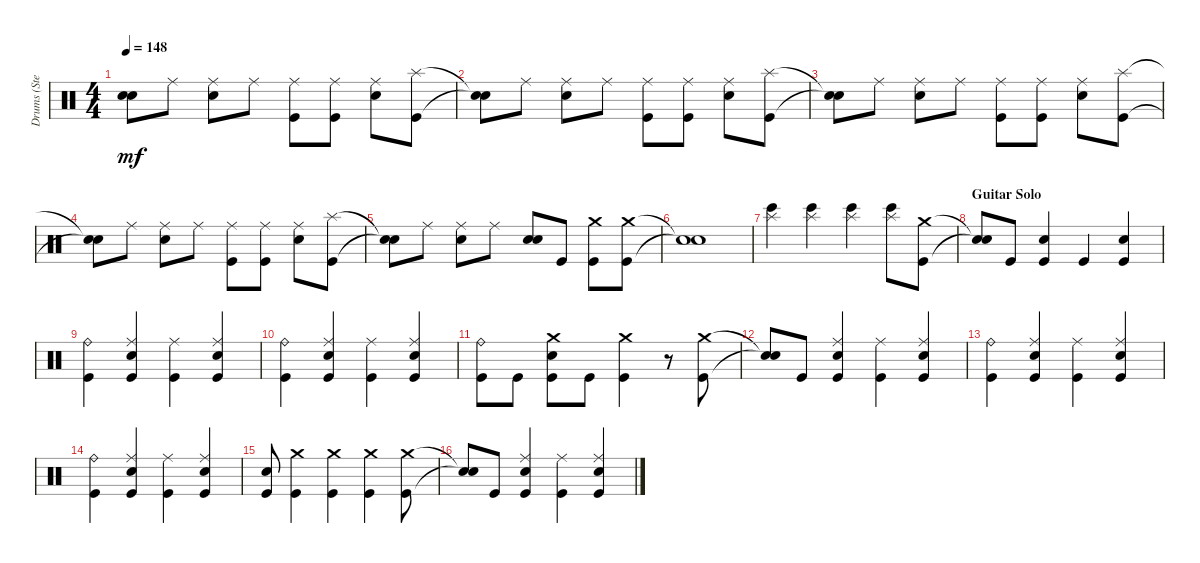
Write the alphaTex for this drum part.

\track ("Drums (Steven)" "Drums (Ste") {instrument percussion}
\staff {score}
\articulation defaults
\ts (4 4)
\tempo 148
\clef neutral
\ks c
("Snare (hit)"{t} "Snare (hit)"{t}).8{dy mf} "Ride (middle)".8 ("Snare (hit) 2" "Ride (middle)").8 "Ride (middle)".8 ("Kick (hit)" "Ride (middle)").8 ("Kick (hit)" "Ride (middle)").8 ("Snare (hit) 2" "Ride (middle)").8 ("Kick (hit)" "Splash (hit)").8 |
("Snare (hit)"{t} "Snare (hit)"{t}).8 "Ride (middle)".8 ("Snare (hit) 2" "Ride (middle)").8 "Ride (middle)".8 ("Kick (hit)" "Ride (middle)").8 ("Kick (hit)" "Ride (middle)").8 ("Snare (hit) 2" "Ride (middle)").8 ("Kick (hit)" "Splash (hit)").8 |
("Snare (hit)"{t} "Snare (hit)"{t}).8 "Ride (middle)".8 ("Snare (hit) 2" "Ride (middle)").8 "Ride (middle)".8 ("Kick (hit)" "Ride (middle)").8 ("Kick (hit)" "Ride (middle)").8 ("Snare (hit) 2" "Ride (middle)").8 ("Kick (hit)" "Splash (hit)").8 |
("Snare (hit)"{t} "Snare (hit)"{t}).8 "Ride (middle)".8 ("Snare (hit) 2" "Ride (middle)").8 "Ride (middle)".8 ("Kick (hit)" "Ride (middle)").8 ("Kick (hit)" "Ride (middle)").8 ("Snare (hit) 2" "Ride (middle)").8 ("Kick (hit)" "Splash (hit)").8 |
("Snare (hit)"{t} "Snare (hit)"{t}).8 "Ride (middle)".8 ("Snare (hit) 2" "Ride (middle)").8 "Ride (middle)".8 ("Snare (hit) 2" "Snare (hit) 2").8 "Kick (hit)".8 ("Kick (hit)" "Crash medium (hit)").8 ("Kick (hit)" "Crash medium (hit)").8 |
("Snare (hit)"{t} "Snare (hit)"{t}).1 |
("Splash (hit)" "Bongo High (hit)").4 ("Splash (hit)" "Bongo High (hit)").4 ("Splash (hit)" "Bongo High (hit)").4 ("Splash (hit)" "Bongo High (hit)").8 ("Kick (hit)" "Crash medium (hit)").8 |
\section ("" "Guitar Solo")
("Snare (hit)"{t} "Snare (hit)"{t}).8 "Kick (hit)".8 ("Kick (hit)" "Snare (hit) 2").4 "Kick (hit)".4 ("Kick (hit)" "Snare (hit) 2").4 |
("Kick (hit)" "Ride (bell)").4 ("Kick (hit)" "Snare (hit) 2" "Ride (middle)").4 ("Kick (hit)" "Ride (middle)").4 ("Kick (hit)" "Snare (hit) 2" "Ride (middle)").4 |
("Kick (hit)" "Ride (bell)").4 ("Kick (hit)" "Snare (hit) 2" "Ride (middle)").4 ("Kick (hit)" "Ride (middle)").4 ("Kick (hit)" "Snare (hit) 2" "Ride (middle)").4 |
("Kick (hit)" "Ride (bell)").8 "Kick (hit)".8 ("Kick (hit)" "Snare (hit) 2" "Crash medium (hit)").8 "Kick (hit)".8 ("Kick (hit)" "Crash medium (hit)").4 r.8 ("Kick (hit)" "Crash medium (hit)").8 |
("Snare (hit)"{t} "Snare (hit)"{t}).8 "Kick (hit)".8 ("Kick (hit)" "Snare (hit) 2" "Ride (middle)").4 ("Kick (hit)" "Ride (middle)").4 ("Kick (hit)" "Snare (hit) 2" "Ride (middle)").4 |
("Kick (hit)" "Ride (bell)").4 ("Kick (hit)" "Snare (hit) 2" "Ride (middle)").4 ("Kick (hit)" "Ride (middle)").4 ("Kick (hit)" "Snare (hit) 2" "Ride (middle)").4 |
("Kick (hit)" "Ride (bell)").4 ("Kick (hit)" "Snare (hit) 2" "Ride (middle)").4 ("Kick (hit)" "Ride (middle)").4 ("Kick (hit)" "Snare (hit) 2" "Ride (middle)").4 |
("Kick (hit)" "Snare (hit) 2").8 ("Kick (hit)" "Crash medium (hit)").4 ("Kick (hit)" "Crash medium (hit)").4 ("Kick (hit)" "Crash medium (hit)").4 ("Kick (hit)" "Crash medium (hit)").8 |
("Snare (hit)"{t} "Snare (hit)"{t}).8 "Kick (hit)".8 ("Kick (hit)" "Snare (hit) 2" "Ride (middle)").4 ("Kick (hit)" "Ride (middle)").4 ("Kick (hit)" "Snare (hit) 2" "Ride (middle)").4
